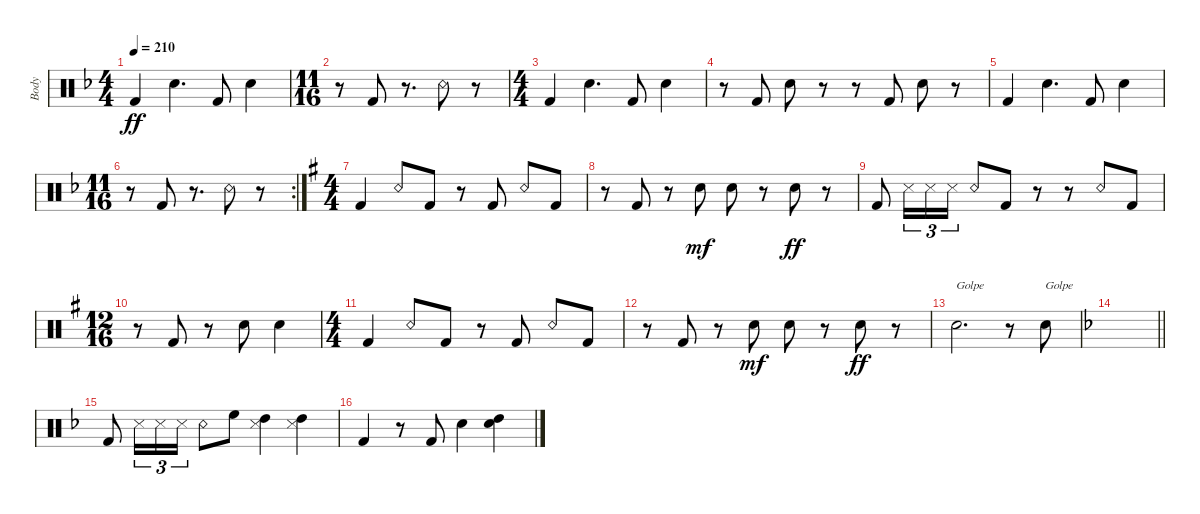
\track ("Body" "Body") {instrument percussion}
\staff {score}
\articulation defaults
\ts (4 4)
\tempo 210
\clef neutral
\ks dminor "Kick (hit) 2".4{dy ff} "Snare (hit) 2".4{d} "Kick (hit) 2".8 "Snare (hit) 2".4
|
\ts (11 16)
r.8 "Kick (hit) 2".8 r.8{d} "Snare (rim shot)".8 r.8 |
\ts (4 4)
"Kick (hit) 2".4 "Snare (hit) 2".4{d} "Kick (hit) 2".8 "Snare (hit) 2".4 |
r.8 "Kick (hit) 2".8 "Snare (hit) 2".8 r.8 r.8 "Kick (hit) 2".8 "Snare (hit) 2".8 r.8 |
"Kick (hit) 2".4 "Snare (hit) 2".4{d} "Kick (hit) 2".8 "Snare (hit) 2".4 |
\rc 2
\ts (11 16)
r.8 "Kick (hit) 2".8 r.8{d} "Snare (rim shot)".8 r.8 |
\ts (4 4)
\ks eminor "Kick (hit) 2".4 "Snare (rim shot)".8 "Kick (hit) 2".8
r.8 "Kick (hit) 2".8 "Snare (rim shot)".8 "Kick (hit) 2".8 |
r.8 "Kick (hit) 2".8 r.8 "Snare (hit) 2".8{dy mf} "Snare (hit) 2".8 r.8 "Snare (hit) 2".8{dy ff} r.8 |
"Kick (hit) 2".8 "Snare (side stick) 3".16{tu (3 2)} "Snare (side stick) 3".16{tu (3 2)} "Snare (side stick) 3".16{tu (3 2)} "Snare (rim shot)".8 "Kick (hit) 2".8 r.8 r.8 "Snare (rim shot)".8 "Kick (hit) 2".8 |
\ts (12 16)
r.8 "Kick (hit) 2".8 r.8 "Snare (hit) 2".8 "Snare (hit) 2".4 |
\ts (4 4)
"Kick (hit) 2".4 "Snare (rim shot)".8 "Kick (hit) 2".8 r.8 "Kick (hit) 2".8 "Snare (rim shot)".8 "Kick (hit) 2".8 |
r.8 "Kick (hit) 2".8 r.8 "Snare (hit) 2".8{dy mf} "Snare (hit) 2".8 r.8 "Snare (hit) 2".8{dy ff} r.8 |
"Snare (hit) 2".2{d txt "Golpe"} r.8 "Snare (hit) 2".8{txt "Golpe"} |
\barLineRight lightlight
\ks dminor
|
"Kick (hit) 2".8 "Snare (side stick) 3".16{tu (3 2)} "Snare (side stick) 3".16{tu (3 2)} "Snare (side stick) 3".16{tu (3 2)} "Snare (rim shot)".8 "High Floor Tom (hit)".8 ("High Tom (hit)" "Snare (side stick) 3").4 ("High Tom (hit)" "Snare (side stick) 3").4 |
"Kick (hit) 2".4 r.8 "Kick (hit) 2".8 "Snare (hit) 2".4 ("High Tom (hit)" "Snare (hit) 2").4
